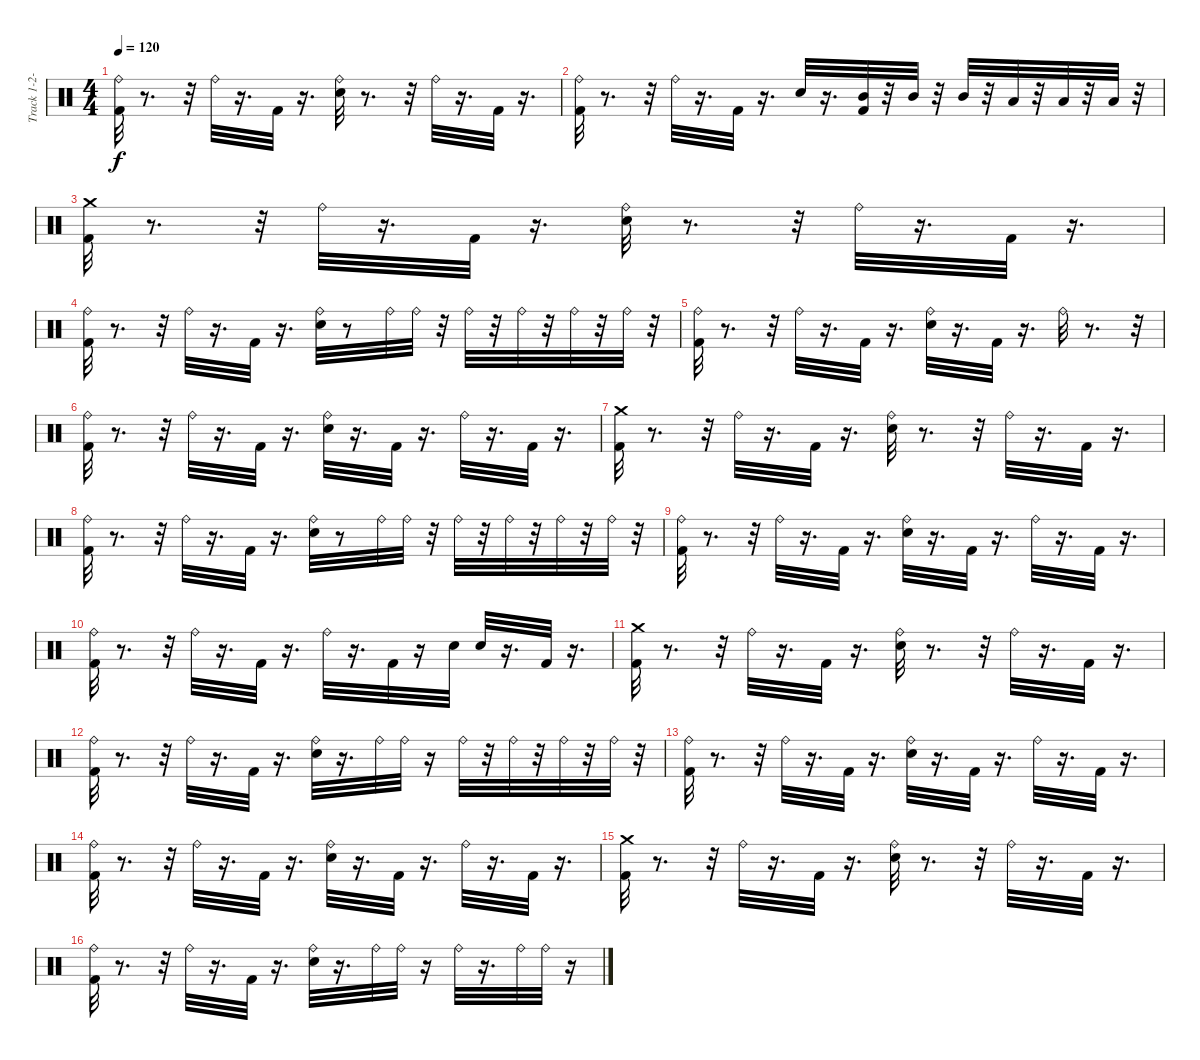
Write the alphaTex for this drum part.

\track ("Track 1-2-3-4" "Track 1-2-") {instrument percussion}
\staff {score}
\articulation defaults
\ts (4 4)
\tempo 120
\clef neutral
\ks c
("Ride (bell)" "Kick (hit) 2").32{dy f} r.8{d} r.32 "Ride (bell)".32 r.16{d} "Kick (hit) 2".32 r.16{d} ("Ride (bell)" "Electric Snare (hit)").32 r.8{d} r.32 "Ride (bell)".32 r.16{d} "Kick (hit) 2".32 r.16{d} |
("Ride (bell)" "Kick (hit) 2").32 r.8{d} r.32 "Ride (bell)".32 r.16{d} "Kick (hit) 2".32 r.16{d} "Electric Snare (hit)".32 r.16{d} ("Kick (hit) 2" "Mid Tom (hit)").32 r.32 "Mid Tom (hit)".32 r.32 "Mid Tom (hit)".32 r.32 "Low Tom (hit)".32 r.32 "Low Tom (hit)".32 r.32 "Low Tom (hit)".32 r.32 |
("Crash medium (hit)" "Kick (hit) 2").32 r.8{d} r.32 "Ride (bell)".32 r.16{d} "Kick (hit) 2".32 r.16{d} ("Ride (bell)" "Electric Snare (hit)").32 r.8{d} r.32 "Ride (bell)".32 r.16{d} "Kick (hit) 2".32 r.16{d} |
("Ride (bell)" "Kick (hit) 2").32 r.8{d} r.32 "Ride (bell)".32 r.16{d} "Kick (hit) 2".32 r.16{d} ("Ride (bell)" "Electric Snare (hit)").32 r.8 "Ride (bell)".32 "Ride (bell)".32 r.32 "Ride (bell)".32 r.32 "Ride (bell)".32 r.32 "Ride (bell)".32 r.32 "Ride (bell)".32 r.32 |
("Ride (bell)" "Kick (hit) 2").32 r.8{d} r.32 "Ride (bell)".32 r.16{d} "Kick (hit) 2".32 r.16{d} ("Ride (bell)" "Electric Snare (hit)").32 r.16{d} "Kick (hit) 2".32 r.16{d} "Ride (bell)".32 r.8{d} r.32 |
("Ride (bell)" "Kick (hit) 2").32 r.8{d} r.32 "Ride (bell)".32 r.16{d} "Kick (hit) 2".32 r.16{d} ("Ride (bell)" "Electric Snare (hit)").32 r.16{d} "Kick (hit) 2".32 r.16{d} "Ride (bell)".32 r.16{d} "Kick (hit) 2".32 r.16{d} |
("Crash medium (hit)" "Kick (hit) 2").32 r.8{d} r.32 "Ride (bell)".32 r.16{d} "Kick (hit) 2".32 r.16{d} ("Ride (bell)" "Electric Snare (hit)").32 r.8{d} r.32 "Ride (bell)".32 r.16{d} "Kick (hit) 2".32 r.16{d} |
("Ride (bell)" "Kick (hit) 2").32 r.8{d} r.32 "Ride (bell)".32 r.16{d} "Kick (hit) 2".32 r.16{d} ("Ride (bell)" "Electric Snare (hit)").32 r.8 "Ride (bell)".32 "Ride (bell)".32 r.32 "Ride (bell)".32 r.32 "Ride (bell)".32 r.32 "Ride (bell)".32 r.32 "Ride (bell)".32 r.32 |
("Ride (bell)" "Kick (hit) 2").32 r.8{d} r.32 "Ride (bell)".32 r.16{d} "Kick (hit) 2".32 r.16{d} ("Ride (bell)" "Electric Snare (hit)").32 r.16{d} "Kick (hit) 2".32 r.16{d} "Ride (bell)".32 r.16{d} "Kick (hit) 2".32 r.16{d} |
("Ride (bell)" "Kick (hit) 2").32 r.8{d} r.32 "Ride (bell)".32 r.16{d} "Kick (hit) 2".32 r.16{d} "Ride (bell)".32 r.16{d} "Kick (hit) 2".32 r.16 "Electric Snare (hit)".32 "Electric Snare (hit)".32 r.16{d} "Kick (hit) 2".32 r.16{d} |
("Crash medium (hit)" "Kick (hit) 2").32 r.8{d} r.32 "Ride (bell)".32 r.16{d} "Kick (hit) 2".32 r.16{d} ("Ride (bell)" "Electric Snare (hit)").32 r.8{d} r.32 "Ride (bell)".32 r.16{d} "Kick (hit) 2".32 r.16{d} |
("Ride (bell)" "Kick (hit) 2").32 r.8{d} r.32 "Ride (bell)".32 r.16{d} "Kick (hit) 2".32 r.16{d} ("Ride (bell)" "Electric Snare (hit)").32 r.16{d} "Ride (bell)".32 "Ride (bell)".32 r.16 "Ride (bell)".32 r.32 "Ride (bell)".32 r.32 "Ride (bell)".32 r.32 "Ride (bell)".32 r.32 |
("Ride (bell)" "Kick (hit) 2").32 r.8{d} r.32 "Ride (bell)".32 r.16{d} "Kick (hit) 2".32 r.16{d} ("Ride (bell)" "Electric Snare (hit)").32 r.16{d} "Kick (hit) 2".32 r.16{d} "Ride (bell)".32 r.16{d} "Kick (hit) 2".32 r.16{d} |
("Ride (bell)" "Kick (hit) 2").32 r.8{d} r.32 "Ride (bell)".32 r.16{d} "Kick (hit) 2".32 r.16{d} ("Ride (bell)" "Electric Snare (hit)").32 r.16{d} "Kick (hit) 2".32 r.16{d} "Ride (bell)".32 r.16{d} "Kick (hit) 2".32 r.16{d} |
("Crash medium (hit)" "Kick (hit) 2").32 r.8{d} r.32 "Ride (bell)".32 r.16{d} "Kick (hit) 2".32 r.16{d} ("Ride (bell)" "Electric Snare (hit)").32 r.8{d} r.32 "Ride (bell)".32 r.16{d} "Kick (hit) 2".32 r.16{d} |
("Ride (bell)" "Kick (hit) 2").32 r.8{d} r.32 "Ride (bell)".32 r.16{d} "Kick (hit) 2".32 r.16{d} ("Ride (bell)" "Electric Snare (hit)").32 r.16{d} "Ride (bell)".32 "Ride (bell)".32 r.16 "Ride (bell)".32 r.16{d} "Ride (bell)".32 "Ride (bell)".32 r.16
